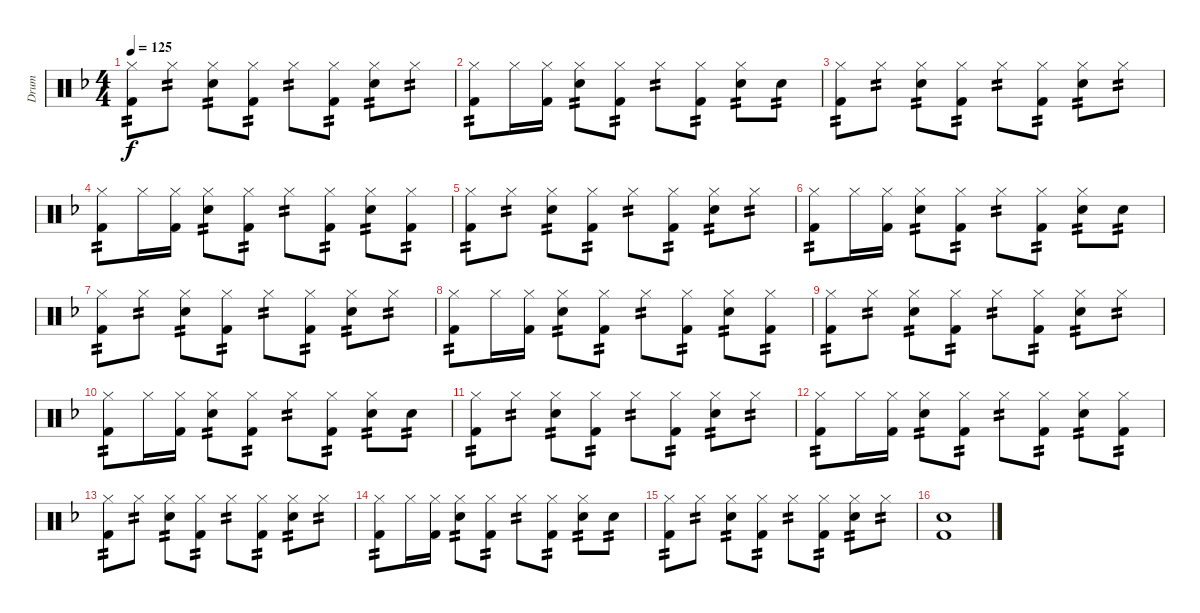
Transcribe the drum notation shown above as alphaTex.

\track ("Drum" "Drum") {instrument percussion}
\staff {score}
\articulation defaults
\ts (4 4)
\tempo 125
\clef neutral
\ks f
("Hi-Hat (closed)" "Kick (hit) 2").8{tp 2 dy f} "Hi-Hat (closed)".8{tp 2} ("Hi-Hat (closed)" "Electric Snare (hit)").8{tp 2} ("Hi-Hat (closed)" "Kick (hit) 2").8{tp 2} "Hi-Hat (closed)".8{tp 2} ("Hi-Hat (closed)" "Kick (hit) 2").8{tp 2} ("Hi-Hat (closed)" "Electric Snare (hit)").8{tp 2} "Hi-Hat (closed)".8{tp 2} |
("Hi-Hat (closed)" "Kick (hit) 2").8{tp 2} "Hi-Hat (closed)".16 ("Hi-Hat (closed)" "Kick (hit) 2").16 ("Hi-Hat (closed)" "Electric Snare (hit)").8{tp 2} ("Hi-Hat (closed)" "Kick (hit) 2").8{tp 2} "Hi-Hat (closed)".8{tp 2} ("Hi-Hat (closed)" "Kick (hit) 2").8{tp 2} ("Hi-Hat (closed)" "Electric Snare (hit)").8{tp 2} "Electric Snare (hit)".8{tp 2} |
("Hi-Hat (closed)" "Kick (hit) 2").8{tp 2} "Hi-Hat (closed)".8{tp 2} ("Hi-Hat (closed)" "Electric Snare (hit)").8{tp 2} ("Hi-Hat (closed)" "Kick (hit) 2").8{tp 2} "Hi-Hat (closed)".8{tp 2} ("Hi-Hat (closed)" "Kick (hit) 2").8{tp 2} ("Hi-Hat (closed)" "Electric Snare (hit)").8{tp 2} "Hi-Hat (closed)".8{tp 2} |
("Hi-Hat (closed)" "Kick (hit) 2").8{tp 2} "Hi-Hat (closed)".16 ("Hi-Hat (closed)" "Kick (hit) 2").16 ("Hi-Hat (closed)" "Electric Snare (hit)").8{tp 2} ("Hi-Hat (closed)" "Kick (hit) 2").8{tp 2} "Hi-Hat (closed)".8{tp 2} ("Hi-Hat (closed)" "Kick (hit) 2").8{tp 2} ("Hi-Hat (closed)" "Electric Snare (hit)").8{tp 2} ("Hi-Hat (closed)" "Kick (hit) 2").8{tp 2} |
("Hi-Hat (closed)" "Kick (hit) 2").8{tp 2} "Hi-Hat (closed)".8{tp 2} ("Hi-Hat (closed)" "Electric Snare (hit)").8{tp 2} ("Hi-Hat (closed)" "Kick (hit) 2").8{tp 2} "Hi-Hat (closed)".8{tp 2} ("Hi-Hat (closed)" "Kick (hit) 2").8{tp 2} ("Hi-Hat (closed)" "Electric Snare (hit)").8{tp 2} "Hi-Hat (closed)".8{tp 2} |
("Hi-Hat (closed)" "Kick (hit) 2").8{tp 2} "Hi-Hat (closed)".16 ("Hi-Hat (closed)" "Kick (hit) 2").16 ("Hi-Hat (closed)" "Electric Snare (hit)").8{tp 2} ("Hi-Hat (closed)" "Kick (hit) 2").8{tp 2} "Hi-Hat (closed)".8{tp 2} ("Hi-Hat (closed)" "Kick (hit) 2").8{tp 2} ("Hi-Hat (closed)" "Electric Snare (hit)").8{tp 2} "Electric Snare (hit)".8{tp 2} |
("Hi-Hat (closed)" "Kick (hit) 2").8{tp 2} "Hi-Hat (closed)".8{tp 2} ("Hi-Hat (closed)" "Electric Snare (hit)").8{tp 2} ("Hi-Hat (closed)" "Kick (hit) 2").8{tp 2} "Hi-Hat (closed)".8{tp 2} ("Hi-Hat (closed)" "Kick (hit) 2").8{tp 2} ("Hi-Hat (closed)" "Electric Snare (hit)").8{tp 2} "Hi-Hat (closed)".8{tp 2} |
("Hi-Hat (closed)" "Kick (hit) 2").8{tp 2} "Hi-Hat (closed)".16 ("Hi-Hat (closed)" "Kick (hit) 2").16 ("Hi-Hat (closed)" "Electric Snare (hit)").8{tp 2} ("Hi-Hat (closed)" "Kick (hit) 2").8{tp 2} "Hi-Hat (closed)".8{tp 2} ("Hi-Hat (closed)" "Kick (hit) 2").8{tp 2} ("Hi-Hat (closed)" "Electric Snare (hit)").8{tp 2} ("Hi-Hat (closed)" "Kick (hit) 2").8{tp 2} |
("Hi-Hat (closed)" "Kick (hit) 2").8{tp 2} "Hi-Hat (closed)".8{tp 2} ("Hi-Hat (closed)" "Electric Snare (hit)").8{tp 2} ("Hi-Hat (closed)" "Kick (hit) 2").8{tp 2} "Hi-Hat (closed)".8{tp 2} ("Hi-Hat (closed)" "Kick (hit) 2").8{tp 2} ("Hi-Hat (closed)" "Electric Snare (hit)").8{tp 2} "Hi-Hat (closed)".8{tp 2} |
("Hi-Hat (closed)" "Kick (hit) 2").8{tp 2} "Hi-Hat (closed)".16 ("Hi-Hat (closed)" "Kick (hit) 2").16 ("Hi-Hat (closed)" "Electric Snare (hit)").8{tp 2} ("Hi-Hat (closed)" "Kick (hit) 2").8{tp 2} "Hi-Hat (closed)".8{tp 2} ("Hi-Hat (closed)" "Kick (hit) 2").8{tp 2} ("Hi-Hat (closed)" "Electric Snare (hit)").8{tp 2} "Electric Snare (hit)".8{tp 2} |
("Hi-Hat (closed)" "Kick (hit) 2").8{tp 2} "Hi-Hat (closed)".8{tp 2} ("Hi-Hat (closed)" "Electric Snare (hit)").8{tp 2} ("Hi-Hat (closed)" "Kick (hit) 2").8{tp 2} "Hi-Hat (closed)".8{tp 2} ("Hi-Hat (closed)" "Kick (hit) 2").8{tp 2} ("Hi-Hat (closed)" "Electric Snare (hit)").8{tp 2} "Hi-Hat (closed)".8{tp 2} |
("Hi-Hat (closed)" "Kick (hit) 2").8{tp 2} "Hi-Hat (closed)".16 ("Hi-Hat (closed)" "Kick (hit) 2").16 ("Hi-Hat (closed)" "Electric Snare (hit)").8{tp 2} ("Hi-Hat (closed)" "Kick (hit) 2").8{tp 2} "Hi-Hat (closed)".8{tp 2} ("Hi-Hat (closed)" "Kick (hit) 2").8{tp 2} ("Hi-Hat (closed)" "Electric Snare (hit)").8{tp 2} ("Hi-Hat (closed)" "Kick (hit) 2").8{tp 2} |
("Hi-Hat (closed)" "Kick (hit) 2").8{tp 2} "Hi-Hat (closed)".8{tp 2} ("Hi-Hat (closed)" "Electric Snare (hit)").8{tp 2} ("Hi-Hat (closed)" "Kick (hit) 2").8{tp 2} "Hi-Hat (closed)".8{tp 2} ("Hi-Hat (closed)" "Kick (hit) 2").8{tp 2} ("Hi-Hat (closed)" "Electric Snare (hit)").8{tp 2} "Hi-Hat (closed)".8{tp 2} |
("Hi-Hat (closed)" "Kick (hit) 2").8{tp 2} "Hi-Hat (closed)".16 ("Hi-Hat (closed)" "Kick (hit) 2").16 ("Hi-Hat (closed)" "Electric Snare (hit)").8{tp 2} ("Hi-Hat (closed)" "Kick (hit) 2").8{tp 2} "Hi-Hat (closed)".8{tp 2} ("Hi-Hat (closed)" "Kick (hit) 2").8{tp 2} ("Hi-Hat (closed)" "Electric Snare (hit)").8{tp 2} "Electric Snare (hit)".8{tp 2} |
("Hi-Hat (closed)" "Kick (hit) 2").8{tp 2} "Hi-Hat (closed)".8{tp 2} ("Hi-Hat (closed)" "Electric Snare (hit)").8{tp 2} ("Hi-Hat (closed)" "Kick (hit) 2").8{tp 2} "Hi-Hat (closed)".8{tp 2} ("Hi-Hat (closed)" "Kick (hit) 2").8{tp 2} ("Hi-Hat (closed)" "Electric Snare (hit)").8{tp 2} "Hi-Hat (closed)".8{tp 2} |
("Electric Snare (hit)" "Kick (hit) 2").1
